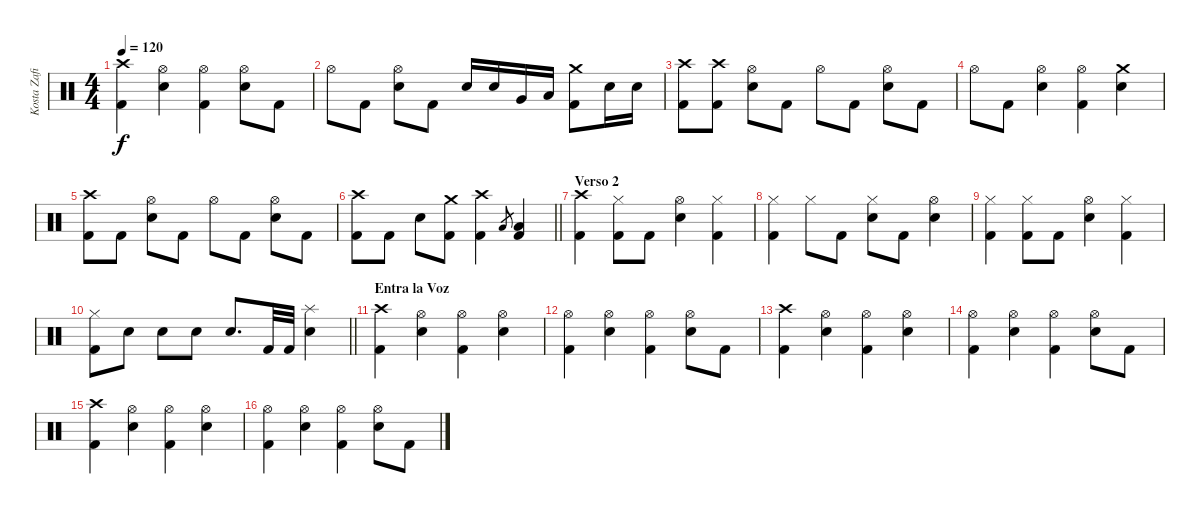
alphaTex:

\track ("Kosta Zafiriou" "Kosta Zafi") {instrument percussion}
\staff {score}
\articulation defaults
\ts (4 4)
\tempo 120
\clef neutral
\ks c
("Crash high (hit)" "Kick (hit) 2").4{dy f} ("Hi-Hat (open)" "Electric Snare (hit)").4 ("Hi-Hat (open)" "Kick (hit) 2").4 ("Hi-Hat (open)" "Electric Snare (hit)").8 "Kick (hit) 2".8 |
"Hi-Hat (open)".8 "Kick (hit) 2".8 ("Hi-Hat (open)" "Electric Snare (hit)").8 "Kick (hit) 2".8 "Electric Snare (hit)".16 "Electric Snare (hit)".16 "Very Low Tom (hit)".16 "Low Floor Tom (hit)".16 ("Crash medium (hit)" "Kick (hit) 2").8 "Electric Snare (hit)".16 "Electric Snare (hit)".16 |
("Crash high (hit)" "Kick (hit) 2").8 ("Crash high (hit)" "Kick (hit) 2").8 ("Hi-Hat (open)" "Electric Snare (hit)").8 "Kick (hit) 2".8 "Hi-Hat (open)".8 "Kick (hit) 2".8 ("Hi-Hat (open)" "Electric Snare (hit)").8 "Kick (hit) 2".8 |
"Hi-Hat (open)".8 "Kick (hit) 2".8 ("Hi-Hat (open)" "Electric Snare (hit)").4 ("Hi-Hat (open)" "Kick (hit) 2").4 ("Crash medium (hit)" "Electric Snare (hit)").4 |
("Crash high (hit)" "Kick (hit) 2").8 "Kick (hit) 2".8 ("Hi-Hat (open)" "Electric Snare (hit)").8 "Kick (hit) 2".8 "Hi-Hat (open)".8 "Kick (hit) 2".8 ("Hi-Hat (open)" "Electric Snare (hit)").8 "Kick (hit) 2".8 |
\barLineRight lightlight
("Crash high (hit)" "Kick (hit) 2").8 "Kick (hit) 2".8 "Electric Snare (hit)".8 ("Crash medium (hit)" "Kick (hit) 2").8 ("Crash high (hit)" "Kick (hit) 2").4 "Low Floor Tom (hit)".8{gr} ("Low Floor Tom (hit)" "Kick (hit) 2").4 |
\section ("" "Verso 2")
("Crash high (hit)" "Kick (hit) 2").4 ("Hi-Hat (closed)" "Kick (hit) 2").8 "Kick (hit) 2".8 ("Hi-Hat (open)" "Electric Snare (hit)").4 ("Hi-Hat (closed)" "Kick (hit) 2").4 |
("Hi-Hat (closed)" "Kick (hit) 2").4 "Hi-Hat (closed)".8 "Kick (hit) 2".8 ("Hi-Hat (closed)" "Electric Snare (hit)").8 "Kick (hit) 2".8 ("Hi-Hat (open)" "Electric Snare (hit)").4 |
("Hi-Hat (closed)" "Kick (hit) 2").4 ("Hi-Hat (closed)" "Kick (hit) 2").8 "Kick (hit) 2".8 ("Hi-Hat (open)" "Electric Snare (hit)").4 ("Hi-Hat (closed)" "Kick (hit) 2").4 |
\barLineRight lightlight
("Hi-Hat (closed)" "Kick (hit) 2").8 "Electric Snare (hit)".8 "Electric Snare (hit)".8 "Electric Snare (hit)".8 "Electric Snare (hit)".8{d} "Kick (hit) 2".32 "Kick (hit) 2".32 ("Splash (hit)" "Electric Snare (hit)").4 |
\section ("" "Entra la Voz")
("Crash high (hit)" "Kick (hit) 2").4 ("Hi-Hat (open)" "Electric Snare (hit)").4 ("Hi-Hat (open)" "Kick (hit) 2").4 ("Hi-Hat (open)" "Electric Snare (hit)").4 |
("Hi-Hat (open)" "Kick (hit) 2").4 ("Hi-Hat (open)" "Electric Snare (hit)").4 ("Hi-Hat (open)" "Kick (hit) 2").4 ("Hi-Hat (open)" "Electric Snare (hit)").8 "Kick (hit) 2".8 |
("Crash high (hit)" "Kick (hit) 2").4 ("Hi-Hat (open)" "Electric Snare (hit)").4 ("Hi-Hat (open)" "Kick (hit) 2").4 ("Hi-Hat (open)" "Electric Snare (hit)").4 |
("Hi-Hat (open)" "Kick (hit) 2").4 ("Hi-Hat (open)" "Electric Snare (hit)").4 ("Hi-Hat (open)" "Kick (hit) 2").4 ("Hi-Hat (open)" "Electric Snare (hit)").8 "Kick (hit) 2".8 |
("Crash high (hit)" "Kick (hit) 2").4 ("Hi-Hat (open)" "Electric Snare (hit)").4 ("Hi-Hat (open)" "Kick (hit) 2").4 ("Hi-Hat (open)" "Electric Snare (hit)").4 |
("Hi-Hat (open)" "Kick (hit) 2").4 ("Hi-Hat (open)" "Electric Snare (hit)").4 ("Hi-Hat (open)" "Kick (hit) 2").4 ("Hi-Hat (open)" "Electric Snare (hit)").8 "Kick (hit) 2".8
